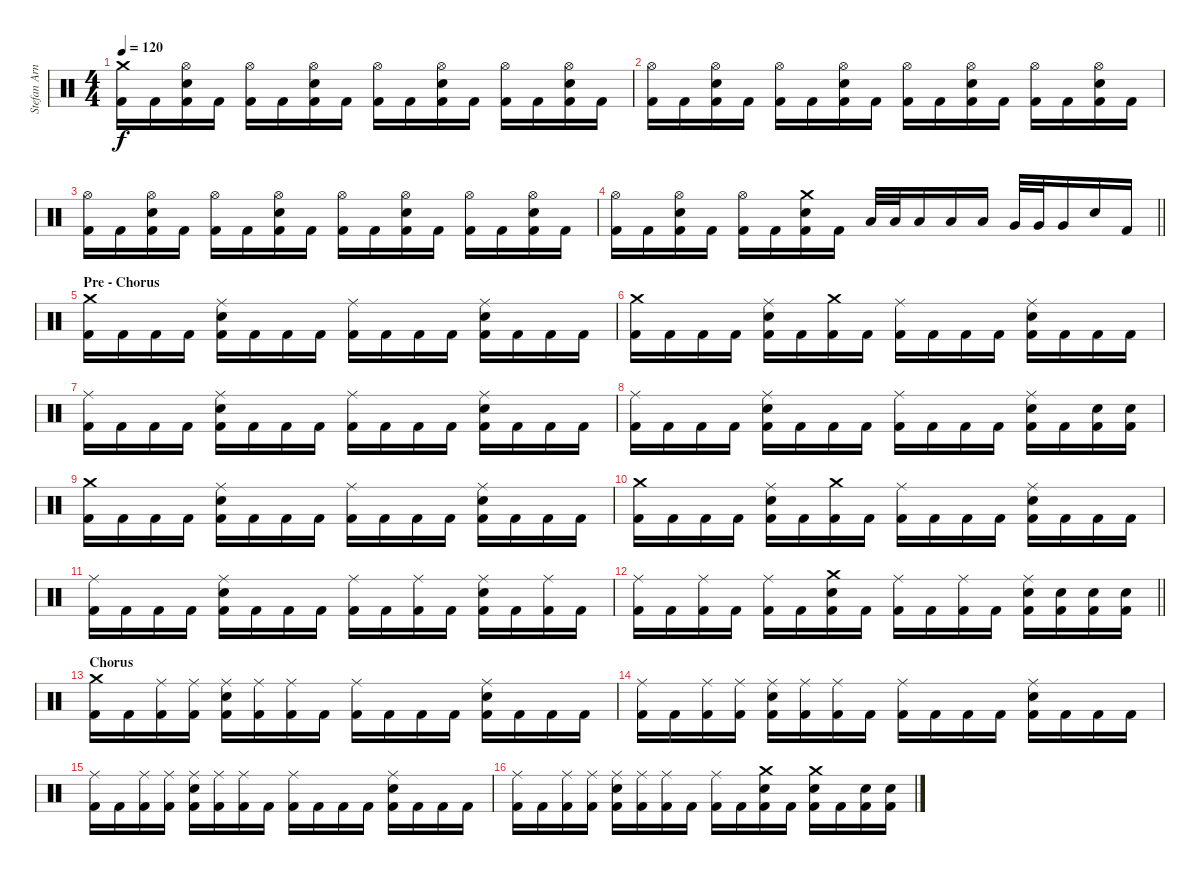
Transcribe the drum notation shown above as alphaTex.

\track ("Stefan Arnold" "Stefan Arn") {instrument percussion}
\staff {score}
\articulation defaults
\ts (4 4)
\tempo 120
\clef neutral
\ks c
("Crash medium (hit)" "Kick (hit) 2").16{dy f} "Kick (hit) 2".16 ("Hi-Hat (open)" "Electric Snare (hit)" "Kick (hit) 2").16 "Kick (hit) 2".16 ("Hi-Hat (open)" "Kick (hit) 2").16 "Kick (hit) 2".16 ("Hi-Hat (open)" "Electric Snare (hit)" "Kick (hit) 2").16 "Kick (hit) 2".16 ("Hi-Hat (open)" "Kick (hit) 2").16 "Kick (hit) 2".16 ("Hi-Hat (open)" "Electric Snare (hit)" "Kick (hit) 2").16 "Kick (hit) 2".16 ("Hi-Hat (open)" "Kick (hit) 2").16 "Kick (hit) 2".16 ("Hi-Hat (open)" "Electric Snare (hit)" "Kick (hit) 2").16 "Kick (hit) 2".16 |
("Hi-Hat (open)" "Kick (hit) 2").16 "Kick (hit) 2".16 ("Hi-Hat (open)" "Electric Snare (hit)" "Kick (hit) 2").16 "Kick (hit) 2".16 ("Hi-Hat (open)" "Kick (hit) 2").16 "Kick (hit) 2".16 ("Hi-Hat (open)" "Electric Snare (hit)" "Kick (hit) 2").16 "Kick (hit) 2".16 ("Hi-Hat (open)" "Kick (hit) 2").16 "Kick (hit) 2".16 ("Hi-Hat (open)" "Electric Snare (hit)" "Kick (hit) 2").16 "Kick (hit) 2".16 ("Hi-Hat (open)" "Kick (hit) 2").16 "Kick (hit) 2".16 ("Hi-Hat (open)" "Electric Snare (hit)" "Kick (hit) 2").16 "Kick (hit) 2".16 |
("Hi-Hat (open)" "Kick (hit) 2").16 "Kick (hit) 2".16 ("Hi-Hat (open)" "Electric Snare (hit)" "Kick (hit) 2").16 "Kick (hit) 2".16 ("Hi-Hat (open)" "Kick (hit) 2").16 "Kick (hit) 2".16 ("Hi-Hat (open)" "Electric Snare (hit)" "Kick (hit) 2").16 "Kick (hit) 2".16 ("Hi-Hat (open)" "Kick (hit) 2").16 "Kick (hit) 2".16 ("Hi-Hat (open)" "Electric Snare (hit)" "Kick (hit) 2").16 "Kick (hit) 2".16 ("Hi-Hat (open)" "Kick (hit) 2").16 "Kick (hit) 2".16 ("Hi-Hat (open)" "Electric Snare (hit)" "Kick (hit) 2").16 "Kick (hit) 2".16 |
\barLineRight lightlight
("Hi-Hat (open)" "Kick (hit) 2").16 "Kick (hit) 2".16 ("Hi-Hat (open)" "Electric Snare (hit)" "Kick (hit) 2").16 "Kick (hit) 2".16 ("Hi-Hat (open)" "Kick (hit) 2").16 "Kick (hit) 2".16 ("Crash medium (hit)" "Electric Snare (hit)" "Kick (hit) 2").16 "Kick (hit) 2".16 "Low Tom (hit)".32 "Low Tom (hit)".32 "Low Tom (hit)".16 "Low Tom (hit)".16 "Low Tom (hit)".16 "Very Low Tom (hit)".32 "Very Low Tom (hit)".32 "Very Low Tom (hit)".16 "Electric Snare (hit)".16 "Kick (hit) 2".16 |
\section ("" "Pre - Chorus")
("Crash medium (hit)" "Kick (hit) 2").16 "Kick (hit) 2".16 "Kick (hit) 2".16 "Kick (hit) 2".16 ("Ride (middle)" "Electric Snare (hit)" "Kick (hit) 2").16 "Kick (hit) 2".16 "Kick (hit) 2".16 "Kick (hit) 2".16 ("Ride (middle)" "Kick (hit) 2").16 "Kick (hit) 2".16 "Kick (hit) 2".16 "Kick (hit) 2".16 ("Ride (middle)" "Electric Snare (hit)" "Kick (hit) 2").16 "Kick (hit) 2".16 "Kick (hit) 2".16 "Kick (hit) 2".16 |
("Crash medium (hit)" "Kick (hit) 2").16 "Kick (hit) 2".16 "Kick (hit) 2".16 "Kick (hit) 2".16 ("Ride (middle)" "Electric Snare (hit)" "Kick (hit) 2").16 "Kick (hit) 2".16 ("Crash medium (hit)" "Kick (hit) 2").16 "Kick (hit) 2".16 ("Ride (middle)" "Kick (hit) 2").16 "Kick (hit) 2".16 "Kick (hit) 2".16 "Kick (hit) 2".16 ("Ride (middle)" "Electric Snare (hit)" "Kick (hit) 2").16 "Kick (hit) 2".16 "Kick (hit) 2".16 "Kick (hit) 2".16 |
("Ride (middle)" "Kick (hit) 2").16 "Kick (hit) 2".16 "Kick (hit) 2".16 "Kick (hit) 2".16 ("Ride (middle)" "Electric Snare (hit)" "Kick (hit) 2").16 "Kick (hit) 2".16 "Kick (hit) 2".16 "Kick (hit) 2".16 ("Ride (middle)" "Kick (hit) 2").16 "Kick (hit) 2".16 "Kick (hit) 2".16 "Kick (hit) 2".16 ("Ride (middle)" "Electric Snare (hit)" "Kick (hit) 2").16 "Kick (hit) 2".16 "Kick (hit) 2".16 "Kick (hit) 2".16 |
("Ride (middle)" "Kick (hit) 2").16 "Kick (hit) 2".16 "Kick (hit) 2".16 "Kick (hit) 2".16 ("Ride (middle)" "Electric Snare (hit)" "Kick (hit) 2").16 "Kick (hit) 2".16 "Kick (hit) 2".16 "Kick (hit) 2".16 ("Ride (middle)" "Kick (hit) 2").16 "Kick (hit) 2".16 "Kick (hit) 2".16 "Kick (hit) 2".16 ("Ride (middle)" "Electric Snare (hit)" "Kick (hit) 2").16 "Kick (hit) 2".16 ("Electric Snare (hit)" "Kick (hit) 2").16 ("Electric Snare (hit)" "Kick (hit) 2").16 |
("Crash medium (hit)" "Kick (hit) 2").16 "Kick (hit) 2".16 "Kick (hit) 2".16 "Kick (hit) 2".16 ("Ride (middle)" "Electric Snare (hit)" "Kick (hit) 2").16 "Kick (hit) 2".16 "Kick (hit) 2".16 "Kick (hit) 2".16 ("Ride (middle)" "Kick (hit) 2").16 "Kick (hit) 2".16 "Kick (hit) 2".16 "Kick (hit) 2".16 ("Ride (middle)" "Electric Snare (hit)" "Kick (hit) 2").16 "Kick (hit) 2".16 "Kick (hit) 2".16 "Kick (hit) 2".16 |
("Crash medium (hit)" "Kick (hit) 2").16 "Kick (hit) 2".16 "Kick (hit) 2".16 "Kick (hit) 2".16 ("Ride (middle)" "Electric Snare (hit)" "Kick (hit) 2").16 "Kick (hit) 2".16 ("Crash medium (hit)" "Kick (hit) 2").16 "Kick (hit) 2".16 ("Ride (middle)" "Kick (hit) 2").16 "Kick (hit) 2".16 "Kick (hit) 2".16 "Kick (hit) 2".16 ("Ride (middle)" "Electric Snare (hit)" "Kick (hit) 2").16 "Kick (hit) 2".16 "Kick (hit) 2".16 "Kick (hit) 2".16 |
("Ride (middle)" "Kick (hit) 2").16 "Kick (hit) 2".16 "Kick (hit) 2".16 "Kick (hit) 2".16 ("Ride (middle)" "Electric Snare (hit)" "Kick (hit) 2").16 "Kick (hit) 2".16 "Kick (hit) 2".16 "Kick (hit) 2".16 ("Ride (middle)" "Kick (hit) 2").16 "Kick (hit) 2".16 ("Ride (middle)" "Kick (hit) 2").16 "Kick (hit) 2".16 ("Ride (middle)" "Electric Snare (hit)" "Kick (hit) 2").16 "Kick (hit) 2".16 ("Ride (middle)" "Kick (hit) 2").16 "Kick (hit) 2".16 |
\barLineRight lightlight
("Ride (middle)" "Kick (hit) 2").16 "Kick (hit) 2".16 ("Ride (middle)" "Kick (hit) 2").16 "Kick (hit) 2".16 ("Ride (middle)" "Kick (hit) 2").16 "Kick (hit) 2".16 ("Crash medium (hit)" "Electric Snare (hit)" "Kick (hit) 2").16 "Kick (hit) 2".16 ("Ride (middle)" "Kick (hit) 2").16 "Kick (hit) 2".16 ("Ride (middle)" "Kick (hit) 2").16 "Kick (hit) 2".16 ("Ride (middle)" "Electric Snare (hit)" "Kick (hit) 2").16 ("Electric Snare (hit)" "Kick (hit) 2").16 ("Electric Snare (hit)" "Kick (hit) 2").16 ("Electric Snare (hit)" "Kick (hit) 2").16 |
\section ("" "Chorus")
("Crash medium (hit)" "Kick (hit) 2").16 "Kick (hit) 2".16 ("Ride (middle)" "Kick (hit) 2").16 ("Ride (middle)" "Kick (hit) 2").16 ("Ride (middle)" "Electric Snare (hit)" "Kick (hit) 2").16 ("Ride (middle)" "Kick (hit) 2").16 ("Ride (middle)" "Kick (hit) 2").16 "Kick (hit) 2".16 ("Ride (middle)" "Kick (hit) 2").16 "Kick (hit) 2".16 "Kick (hit) 2".16 "Kick (hit) 2".16 ("Ride (middle)" "Electric Snare (hit)" "Kick (hit) 2").16 "Kick (hit) 2".16 "Kick (hit) 2".16 "Kick (hit) 2".16 |
("Ride (middle)" "Kick (hit) 2").16 "Kick (hit) 2".16 ("Ride (middle)" "Kick (hit) 2").16 ("Ride (middle)" "Kick (hit) 2").16 ("Ride (middle)" "Electric Snare (hit)" "Kick (hit) 2").16 ("Ride (middle)" "Kick (hit) 2").16 ("Ride (middle)" "Kick (hit) 2").16 "Kick (hit) 2".16 ("Ride (middle)" "Kick (hit) 2").16 "Kick (hit) 2".16 "Kick (hit) 2".16 "Kick (hit) 2".16 ("Ride (middle)" "Electric Snare (hit)" "Kick (hit) 2").16 "Kick (hit) 2".16 "Kick (hit) 2".16 "Kick (hit) 2".16 |
("Ride (middle)" "Kick (hit) 2").16 "Kick (hit) 2".16 ("Ride (middle)" "Kick (hit) 2").16 ("Ride (middle)" "Kick (hit) 2").16 ("Ride (middle)" "Electric Snare (hit)" "Kick (hit) 2").16 ("Ride (middle)" "Kick (hit) 2").16 ("Ride (middle)" "Kick (hit) 2").16 "Kick (hit) 2".16 ("Ride (middle)" "Kick (hit) 2").16 "Kick (hit) 2".16 "Kick (hit) 2".16 "Kick (hit) 2".16 ("Ride (middle)" "Electric Snare (hit)" "Kick (hit) 2").16 "Kick (hit) 2".16 "Kick (hit) 2".16 "Kick (hit) 2".16 |
("Ride (middle)" "Kick (hit) 2").16 "Kick (hit) 2".16 ("Ride (middle)" "Kick (hit) 2").16 ("Ride (middle)" "Kick (hit) 2").16 ("Ride (middle)" "Electric Snare (hit)" "Kick (hit) 2").16 ("Ride (middle)" "Kick (hit) 2").16 ("Ride (middle)" "Kick (hit) 2").16 "Kick (hit) 2".16 ("Ride (middle)" "Kick (hit) 2").16 "Kick (hit) 2".16 ("Crash medium (hit)" "Electric Snare (hit)" "Kick (hit) 2").16 "Kick (hit) 2".16 ("Crash medium (hit)" "Electric Snare (hit)" "Kick (hit) 2").16 "Kick (hit) 2".16 ("Electric Snare (hit)" "Kick (hit) 2").16 ("Electric Snare (hit)" "Kick (hit) 2").16
